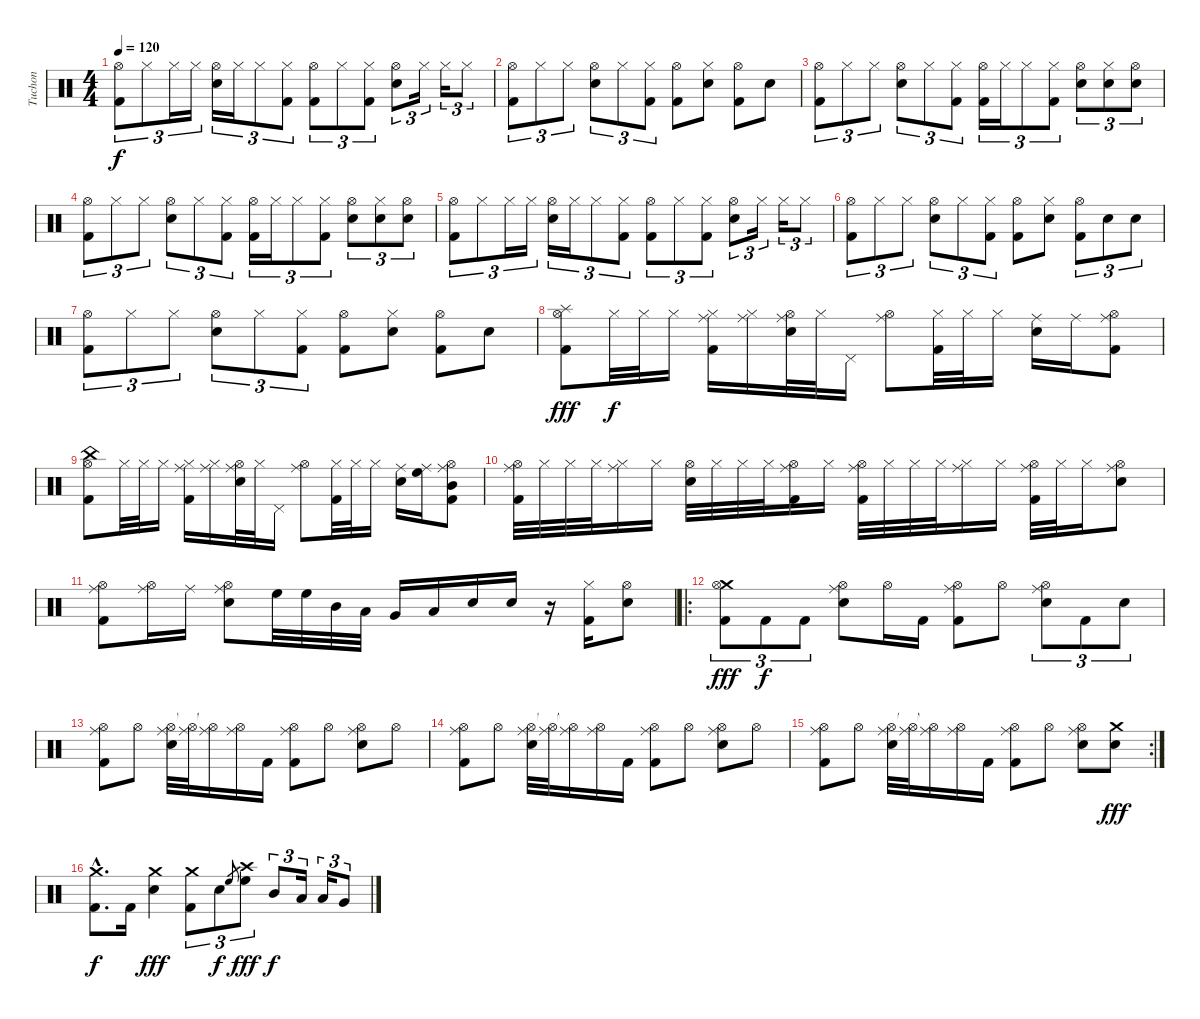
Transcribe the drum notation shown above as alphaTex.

\track ("Tuchon" "Tuchon") {instrument percussion}
\staff {score}
\articulation defaults
\ts (4 4)
\tempo 120
\clef neutral
\ks c
("Hi-Hat (open)" "Kick (hit) 2").8{tu (3 2) dy f} "Hi-Hat (closed)".8{tu (3 2)} "Hi-Hat (closed)".16{tu (3 2)} "Hi-Hat (closed)".16{tu (3 2)} ("Hi-Hat (open)" "Electric Snare (hit)").16{tu (3 2)} "Hi-Hat (closed)".16{tu (3 2)} "Hi-Hat (closed)".8{tu (3 2)} ("Hi-Hat (closed)" "Kick (hit) 2").8{tu (3 2)} ("Hi-Hat (open)" "Kick (hit) 2").8{tu (3 2)} "Hi-Hat (closed)".8{tu (3 2)} ("Hi-Hat (closed)" "Kick (hit) 2").8{tu (3 2)} ("Hi-Hat (open)" "Electric Snare (hit)").8{tu (3 2)} "Hi-Hat (closed)".16{tu (3 2)} "Hi-Hat (closed)".16{tu (3 2)} "Hi-Hat (closed)".8{tu (3 2)} |
("Hi-Hat (open)" "Kick (hit) 2").8{tu (3 2)} "Hi-Hat (closed)".8{tu (3 2)} "Hi-Hat (closed)".8{tu (3 2)} ("Hi-Hat (open)" "Electric Snare (hit)").8{tu (3 2)} "Hi-Hat (closed)".8{tu (3 2)} ("Hi-Hat (closed)" "Kick (hit) 2").8{tu (3 2)} ("Hi-Hat (open)" "Kick (hit) 2").8 ("Hi-Hat (closed)" "Electric Snare (hit)").8 ("Hi-Hat (open)" "Kick (hit) 2").8 "Electric Snare (hit)".8 |
("Hi-Hat (open)" "Kick (hit) 2").8{tu (3 2)} "Hi-Hat (closed)".8{tu (3 2)} "Hi-Hat (closed)".8{tu (3 2)} ("Hi-Hat (open)" "Electric Snare (hit)").8{tu (3 2)} "Hi-Hat (closed)".8{tu (3 2)} ("Hi-Hat (closed)" "Kick (hit) 2").8{tu (3 2)} ("Hi-Hat (open)" "Kick (hit) 2").16{tu (3 2)} "Hi-Hat (closed)".16{tu (3 2)} "Hi-Hat (closed)".8{tu (3 2)} ("Hi-Hat (closed)" "Kick (hit) 2").8{tu (3 2)} ("Hi-Hat (open)" "Electric Snare (hit)").8{tu (3 2)} ("Hi-Hat (closed)" "Electric Snare (hit)").8{tu (3 2)} ("Hi-Hat (open)" "Electric Snare (hit)").8{tu (3 2)} |
("Hi-Hat (open)" "Kick (hit) 2").8{tu (3 2)} "Hi-Hat (closed)".8{tu (3 2)} "Hi-Hat (closed)".8{tu (3 2)} ("Hi-Hat (open)" "Electric Snare (hit)").8{tu (3 2)} "Hi-Hat (closed)".8{tu (3 2)} ("Hi-Hat (closed)" "Kick (hit) 2").8{tu (3 2)} ("Hi-Hat (open)" "Kick (hit) 2").16{tu (3 2)} "Hi-Hat (closed)".16{tu (3 2)} "Hi-Hat (closed)".8{tu (3 2)} ("Hi-Hat (closed)" "Kick (hit) 2").8{tu (3 2)} ("Hi-Hat (open)" "Electric Snare (hit)").8{tu (3 2)} ("Hi-Hat (closed)" "Electric Snare (hit)").8{tu (3 2)} ("Hi-Hat (open)" "Electric Snare (hit)").8{tu (3 2)} |
("Hi-Hat (open)" "Kick (hit) 2").8{tu (3 2)} "Hi-Hat (closed)".8{tu (3 2)} "Hi-Hat (closed)".16{tu (3 2)} "Hi-Hat (closed)".16{tu (3 2)} ("Hi-Hat (open)" "Electric Snare (hit)").16{tu (3 2)} "Hi-Hat (closed)".16{tu (3 2)} "Hi-Hat (closed)".8{tu (3 2)} ("Hi-Hat (closed)" "Kick (hit) 2").8{tu (3 2)} ("Hi-Hat (open)" "Kick (hit) 2").8{tu (3 2)} "Hi-Hat (closed)".8{tu (3 2)} ("Hi-Hat (closed)" "Kick (hit) 2").8{tu (3 2)} ("Hi-Hat (open)" "Electric Snare (hit)").8{tu (3 2)} "Hi-Hat (closed)".16{tu (3 2)} "Hi-Hat (closed)".16{tu (3 2)} "Hi-Hat (closed)".8{tu (3 2)} |
("Hi-Hat (open)" "Kick (hit) 2").8{tu (3 2)} "Hi-Hat (closed)".8{tu (3 2)} "Hi-Hat (closed)".8{tu (3 2)} ("Hi-Hat (open)" "Electric Snare (hit)").8{tu (3 2)} "Hi-Hat (closed)".8{tu (3 2)} ("Hi-Hat (closed)" "Kick (hit) 2").8{tu (3 2)} ("Hi-Hat (open)" "Kick (hit) 2").8 ("Hi-Hat (closed)" "Electric Snare (hit)").8 ("Hi-Hat (open)" "Kick (hit) 2").8{tu (3 2)} "Electric Snare (hit)".8{tu (3 2)} "Electric Snare (hit)".8{tu (3 2)} |
("Hi-Hat (open)" "Kick (hit) 2").8{tu (3 2)} "Hi-Hat (closed)".8{tu (3 2)} "Hi-Hat (closed)".8{tu (3 2)} ("Hi-Hat (open)" "Electric Snare (hit)").8{tu (3 2)} "Hi-Hat (closed)".8{tu (3 2)} ("Hi-Hat (closed)" "Kick (hit) 2").8{tu (3 2)} ("Hi-Hat (open)" "Kick (hit) 2").8 ("Hi-Hat (closed)" "Electric Snare (hit)").8 ("Hi-Hat (open)" "Kick (hit) 2").8 "Electric Snare (hit)".8 |
("Splash (hit)" "Hi-Hat (open)" "Kick (hit) 2").8{dy fff} "Hi-Hat (closed)".32{dy f} "Hi-Hat (closed)".32 "Hi-Hat (closed)".16 ("Ride (middle)" "Hi-Hat (closed)" "Kick (hit) 2").16 ("Ride (middle)" "Hi-Hat (closed)").16 ("Ride (middle)" "Hi-Hat (open)" "Electric Snare (hit)").32 "Hi-Hat (closed)".32 "Pedal Hi-Hat (hit)".16 ("Ride (middle)" "Hi-Hat (open)").8 ("Hi-Hat (closed)" "Kick (hit) 2").32 "Hi-Hat (closed)".32 "Hi-Hat (closed)".16 ("Ride (middle)" "Electric Snare (hit)").16 "Ride (middle)".16 ("Ride (middle)" "Hi-Hat (open)" "Kick (hit) 2").8 |
("China (hit)" "Hi-Hat (open)" "Kick (hit) 2").8 "Hi-Hat (closed)".32 "Hi-Hat (closed)".32 "Hi-Hat (closed)".16 ("Ride (middle)" "Hi-Hat (closed)" "Kick (hit) 2").16 ("Ride (middle)" "Hi-Hat (closed)").16 ("Ride (middle)" "Hi-Hat (open)" "Electric Snare (hit)").32 "Hi-Hat (closed)".32 "Pedal Hi-Hat (hit)".16 ("Ride (middle)" "Hi-Hat (open)").8 ("Hi-Hat (closed)" "Kick (hit) 2").32 "Hi-Hat (closed)".32 "Hi-Hat (closed)".16 ("Ride (middle)" "Electric Snare (hit)").16 ("Ride (middle)" "High Floor Tom (hit)").16 ("Ride (middle)" "Hi-Hat (open)" "Mid Tom (hit)" "Kick (hit) 2").8 |
("Ride (middle)" "Hi-Hat (open)" "Kick (hit) 2").32 "Hi-Hat (closed)".32 "Hi-Hat (closed)".32 "Hi-Hat (closed)".32 ("Ride (middle)" "Hi-Hat (closed)").16 "Hi-Hat (closed)".16 ("Hi-Hat (open)" "Electric Snare (hit)").32 "Hi-Hat (closed)".32 "Hi-Hat (closed)".32 "Hi-Hat (closed)".32 ("Ride (middle)" "Hi-Hat (open)" "Kick (hit) 2").16 "Hi-Hat (closed)".16 ("Ride (middle)" "Hi-Hat (open)" "Kick (hit) 2").32 "Hi-Hat (closed)".32 "Hi-Hat (closed)".32 "Hi-Hat (closed)".32 ("Ride (middle)" "Hi-Hat (closed)").16 "Hi-Hat (closed)".16 ("Ride (middle)" "Hi-Hat (open)" "Kick (hit) 2").32 "Hi-Hat (closed)".32 "Hi-Hat (closed)".16 ("Ride (middle)" "Hi-Hat (open)" "Electric Snare (hit)").8 |
("Ride (middle)" "Hi-Hat (open)" "Kick (hit) 2").8 ("Ride (middle)" "Hi-Hat (open)").16 "Ride (middle)".16 ("Ride (middle)" "Hi-Hat (open)" "Electric Snare (hit)").8 "High Floor Tom (hit)".32 "High Floor Tom (hit)".32 "Mid Tom (hit)".32 "Low Tom (hit)".32 "Very Low Tom (hit)".16 "Low Floor Tom (hit)".16 "Electric Snare (hit)".16 "Electric Snare (hit)".16 r.16 ("Hi-Hat (closed)" "Kick (hit) 2").16 ("Hi-Hat (open)" "Electric Snare (hit)").8 |
\ro
("Crash medium (hit)" "Hi-Hat (open)" "Kick (hit) 2").8{tu (3 2) dy fff} "Kick (hit) 2".8{tu (3 2) dy f} "Kick (hit) 2".8{tu (3 2)} ("Ride (middle)" "Hi-Hat (open)" "Electric Snare (hit)").8 "Hi-Hat (open)".16 "Kick (hit) 2".16 ("Ride (middle)" "Hi-Hat (open)" "Kick (hit) 2").8 "Hi-Hat (open)".8 ("Ride (middle)" "Hi-Hat (open)" "Electric Snare (hit)").8{tu (3 2)} "Kick (hit) 2".8{tu (3 2)} "Electric Snare (hit)".8{tu (3 2)} |
("Ride (middle)" "Hi-Hat (open)" "Kick (hit) 2").8 "Hi-Hat (open)".8 ("Ride (middle)" "Hi-Hat (open)" "Electric Snare (hit)").32 ("Ride (middle)" "Hi-Hat (open)"{t}).32 ("Ride (middle)" "Hi-Hat (open)"{t}).16 ("Ride (middle)" "Hi-Hat (open)").16 "Kick (hit) 2".16 ("Ride (middle)" "Hi-Hat (open)" "Kick (hit) 2").8 "Hi-Hat (open)".8 ("Ride (middle)" "Hi-Hat (open)" "Electric Snare (hit)").8 "Hi-Hat (open)".8 |
("Ride (middle)" "Hi-Hat (open)" "Kick (hit) 2").8 "Hi-Hat (open)".8 ("Ride (middle)" "Hi-Hat (open)" "Electric Snare (hit)").32 ("Ride (middle)" "Hi-Hat (open)"{t}).32 ("Ride (middle)" "Hi-Hat (open)"{t}).16 ("Ride (middle)" "Hi-Hat (open)").16 "Kick (hit) 2".16 ("Ride (middle)" "Hi-Hat (open)" "Kick (hit) 2").8 "Hi-Hat (open)".8 ("Ride (middle)" "Hi-Hat (open)" "Electric Snare (hit)").8 "Hi-Hat (open)".8 |
\rc 2
("Ride (middle)" "Hi-Hat (open)" "Kick (hit) 2").8 "Hi-Hat (open)".8 ("Ride (middle)" "Hi-Hat (open)" "Electric Snare (hit)").32 ("Ride (middle)" "Hi-Hat (open)"{t}).32 ("Ride (middle)" "Hi-Hat (open)"{t}).16 ("Ride (middle)" "Hi-Hat (open)").16 "Kick (hit) 2".16 ("Ride (middle)" "Hi-Hat (open)" "Kick (hit) 2").8 "Hi-Hat (open)".8 ("Ride (middle)" "Hi-Hat (open)" "Electric Snare (hit)").8 ("Crash medium (hit)" "Electric Snare (hit)").8{dy fff} |
("Crash medium (hit)"{hac} "Kick (hit) 2"{hac}).8{d dy f} "Kick (hit) 2".16 ("Crash medium (hit)" "Electric Snare (hit)").4{dy fff} ("Crash medium (hit)" "Kick (hit) 2").8{tu (3 2)} "Electric Snare (hit)".8{tu (3 2) dy f} "High Floor Tom (hit)".8{gr} ("Crash high (hit)" "High Floor Tom (hit)").8{tu (3 2) dy fff} "Mid Tom (hit)".8{tu (3 2) dy f} "Low Tom (hit)".16{tu (3 2)} "Low Tom (hit)".16{tu (3 2)} "Very Low Tom (hit)".8{tu (3 2)}
